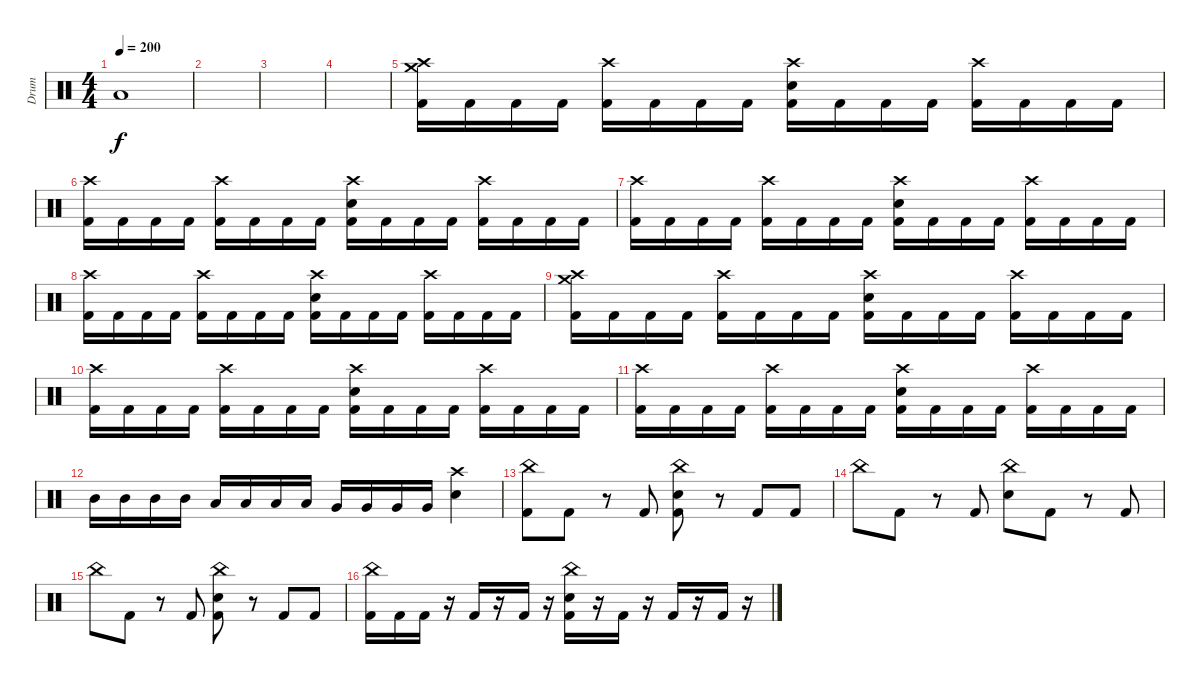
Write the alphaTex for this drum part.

\track ("Drum" "Drum") {instrument percussion}
\staff {score}
\articulation defaults
\ts (4 4)
\tempo 200
\clef neutral
\ks c "Low Floor Tom (hit)".1{dy f}
|
|
|
|
("Crash medium (hit)" "Crash high (hit)" "Kick (hit) 2").16 "Kick (hit) 2".16 "Kick (hit) 2".16 "Kick (hit) 2".16 ("Crash high (hit)" "Kick (hit) 2").16 "Kick (hit) 2".16 "Kick (hit) 2".16 "Kick (hit) 2".16 ("Crash high (hit)" "Snare (hit) 2" "Kick (hit) 2").16 "Kick (hit) 2".16 "Kick (hit) 2".16 "Kick (hit) 2".16 ("Crash high (hit)" "Kick (hit) 2").16 "Kick (hit) 2".16 "Kick (hit) 2".16 "Kick (hit) 2".16 |
("Crash high (hit)" "Kick (hit) 2").16 "Kick (hit) 2".16 "Kick (hit) 2".16 "Kick (hit) 2".16 ("Crash high (hit)" "Kick (hit) 2").16 "Kick (hit) 2".16 "Kick (hit) 2".16 "Kick (hit) 2".16 ("Crash high (hit)" "Snare (hit) 2" "Kick (hit) 2").16 "Kick (hit) 2".16 "Kick (hit) 2".16 "Kick (hit) 2".16 ("Crash high (hit)" "Kick (hit) 2").16 "Kick (hit) 2".16 "Kick (hit) 2".16 "Kick (hit) 2".16 |
("Crash high (hit)" "Kick (hit) 2").16 "Kick (hit) 2".16 "Kick (hit) 2".16 "Kick (hit) 2".16 ("Crash high (hit)" "Kick (hit) 2").16 "Kick (hit) 2".16 "Kick (hit) 2".16 "Kick (hit) 2".16 ("Crash high (hit)" "Snare (hit) 2" "Kick (hit) 2").16 "Kick (hit) 2".16 "Kick (hit) 2".16 "Kick (hit) 2".16 ("Crash high (hit)" "Kick (hit) 2").16 "Kick (hit) 2".16 "Kick (hit) 2".16 "Kick (hit) 2".16 |
("Crash high (hit)" "Kick (hit) 2").16 "Kick (hit) 2".16 "Kick (hit) 2".16 "Kick (hit) 2".16 ("Crash high (hit)" "Kick (hit) 2").16 "Kick (hit) 2".16 "Kick (hit) 2".16 "Kick (hit) 2".16 ("Crash high (hit)" "Snare (hit) 2" "Kick (hit) 2").16 "Kick (hit) 2".16 "Kick (hit) 2".16 "Kick (hit) 2".16 ("Crash high (hit)" "Kick (hit) 2").16 "Kick (hit) 2".16 "Kick (hit) 2".16 "Kick (hit) 2".16 |
("Crash medium (hit)" "Crash high (hit)" "Kick (hit) 2").16 "Kick (hit) 2".16 "Kick (hit) 2".16 "Kick (hit) 2".16 ("Crash high (hit)" "Kick (hit) 2").16 "Kick (hit) 2".16 "Kick (hit) 2".16 "Kick (hit) 2".16 ("Crash high (hit)" "Snare (hit) 2" "Kick (hit) 2").16 "Kick (hit) 2".16 "Kick (hit) 2".16 "Kick (hit) 2".16 ("Crash high (hit)" "Kick (hit) 2").16 "Kick (hit) 2".16 "Kick (hit) 2".16 "Kick (hit) 2".16 |
("Crash high (hit)" "Kick (hit) 2").16 "Kick (hit) 2".16 "Kick (hit) 2".16 "Kick (hit) 2".16 ("Crash high (hit)" "Kick (hit) 2").16 "Kick (hit) 2".16 "Kick (hit) 2".16 "Kick (hit) 2".16 ("Crash high (hit)" "Snare (hit) 2" "Kick (hit) 2").16 "Kick (hit) 2".16 "Kick (hit) 2".16 "Kick (hit) 2".16 ("Crash high (hit)" "Kick (hit) 2").16 "Kick (hit) 2".16 "Kick (hit) 2".16 "Kick (hit) 2".16 |
("Crash high (hit)" "Kick (hit) 2").16 "Kick (hit) 2".16 "Kick (hit) 2".16 "Kick (hit) 2".16 ("Crash high (hit)" "Kick (hit) 2").16 "Kick (hit) 2".16 "Kick (hit) 2".16 "Kick (hit) 2".16 ("Crash high (hit)" "Snare (hit) 2" "Kick (hit) 2").16 "Kick (hit) 2".16 "Kick (hit) 2".16 "Kick (hit) 2".16 ("Crash high (hit)" "Kick (hit) 2").16 "Kick (hit) 2".16 "Kick (hit) 2".16 "Kick (hit) 2".16 |
"Mid Tom (hit)".16 "Mid Tom (hit)".16 "Mid Tom (hit)".16 "Mid Tom (hit)".16 "Low Tom (hit)".16 "Low Tom (hit)".16 "Low Tom (hit)".16 "Low Tom (hit)".16 "Very Low Tom (hit)".16 "Very Low Tom (hit)".16 "Very Low Tom (hit)".16 "Very Low Tom (hit)".16 ("Crash high (hit)" "Snare (hit) 2").4 |
("China (hit)" "Kick (hit) 2").8 "Kick (hit) 2".8 r.8 "Kick (hit) 2".8 ("China (hit)" "Snare (hit) 2" "Kick (hit) 2").8 r.8 "Kick (hit) 2".8 "Kick (hit) 2".8 |
"China (hit)".8 "Kick (hit) 2".8 r.8 "Kick (hit) 2".8 ("China (hit)" "Snare (hit) 2").8 "Kick (hit) 2".8 r.8 "Kick (hit) 2".8 |
"China (hit)".8 "Kick (hit) 2".8 r.8 "Kick (hit) 2".8 ("China (hit)" "Snare (hit) 2" "Kick (hit) 2").8 r.8 "Kick (hit) 2".8 "Kick (hit) 2".8 |
("China (hit)" "Kick (hit) 2").16 "Kick (hit) 2".16 "Kick (hit) 2".16 r.16 "Kick (hit) 2".16 r.16 "Kick (hit) 2".16 r.16 ("China (hit)" "Snare (hit) 2" "Kick (hit) 2").16 r.16 "Kick (hit) 2".16 r.16 "Kick (hit) 2".16 r.16 "Kick (hit) 2".16 r.16
